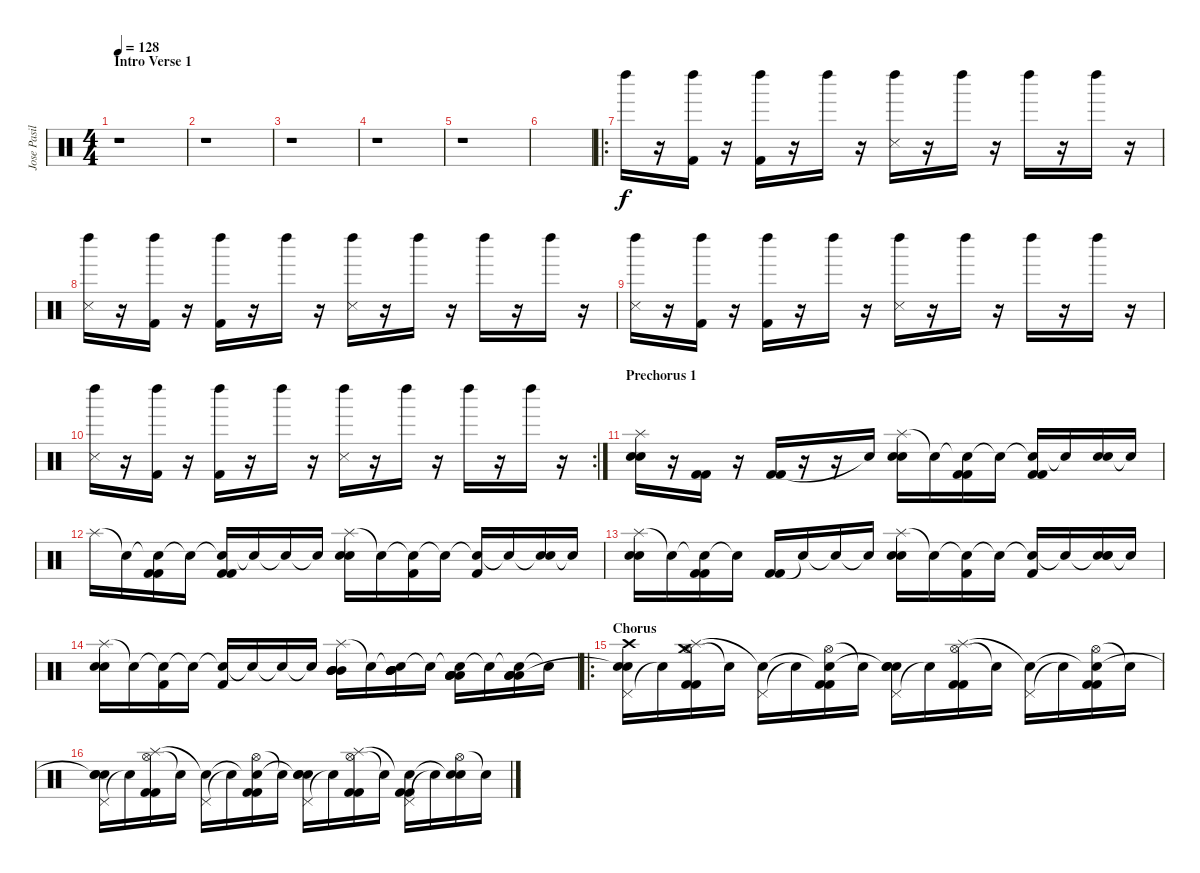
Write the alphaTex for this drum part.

\track ("Jose Pasillas" "Jose Pasil") {instrument percussion}
\staff {score}
\articulation defaults
\ts (4 4)
\section ("" "Intro Verse 1")
\tempo 128
\clef neutral
\ks c
r.1{dy f} |
r.1 |
r.1 |
r.1 |
r.1 |
|
\ro "Left Maraca (hit)".16
r.16 ("Left Maraca (hit)" "Kick (hit) 2").16 r.16 ("Left Maraca (hit)" "Kick (hit) 2").16 r.16 "Left Maraca (hit)".16 r.16 ("Metronome (hit)" "Left Maraca (hit)").16 r.16 "Left Maraca (hit)".16 r.16 "Left Maraca (hit)".16 r.16 "Left Maraca (hit)".16 r.16 |
("Left Maraca (hit)" "Metronome (hit)").16 r.16 ("Left Maraca (hit)" "Kick (hit) 2").16 r.16 ("Left Maraca (hit)" "Kick (hit) 2").16 r.16 "Left Maraca (hit)".16 r.16 ("Metronome (hit)" "Left Maraca (hit)").16 r.16 "Left Maraca (hit)".16 r.16 "Left Maraca (hit)".16 r.16 "Left Maraca (hit)".16 r.16 |
("Left Maraca (hit)" "Metronome (hit)").16 r.16 ("Left Maraca (hit)" "Kick (hit) 2").16 r.16 ("Left Maraca (hit)" "Kick (hit) 2").16 r.16 "Left Maraca (hit)".16 r.16 ("Metronome (hit)" "Left Maraca (hit)").16 r.16 "Left Maraca (hit)".16 r.16 "Left Maraca (hit)".16 r.16 "Left Maraca (hit)".16 r.16 |
\rc 2
("Left Maraca (hit)" "Metronome (hit)").16 r.16 ("Left Maraca (hit)" "Kick (hit) 2").16 r.16 ("Left Maraca (hit)" "Kick (hit) 2").16 r.16 "Left Maraca (hit)".16 r.16 ("Metronome (hit)" "Left Maraca (hit)").16 r.16 "Left Maraca (hit)".16 r.16 "Left Maraca (hit)".16 r.16 "Left Maraca (hit)".16 r.16 |
\section ("" "Prechorus 1")
("Splash (hit)" "Electric Snare (hit)" "Electric Snare (hit)").16 r.16 ("Kick (hit) 2" "Kick (hit) 2").16 r.16 ("Kick (hit) 2" "Kick (hit) 2").16 r.16 r.16 "Snare (hit)"{t}.16 ("Splash (hit)" "Electric Snare (hit)" "Electric Snare (hit)").16 "Snare (hit)"{t}.16 ("Snare (hit)"{t} "Kick (hit) 2" "Kick (hit) 2").16 "Snare (hit)"{t}.16 ("Snare (hit)"{t} "Kick (hit) 2" "Kick (hit) 2").16 "Snare (hit)"{t}.16 ("Electric Snare (hit)" "Electric Snare (hit)").16 "Snare (hit)"{t}.16 |
"Splash (hit)".16 "Snare (hit)"{t}.16 ("Snare (hit)"{t} "Kick (hit) 2" "Kick (hit) 2").16 "Snare (hit)"{t}.16 ("Snare (hit)"{t} "Kick (hit) 2" "Kick (hit) 2").16 "Snare (hit)"{t}.16 "Snare (hit)"{t}.16 "Snare (hit)"{t}.16 ("Splash (hit)" "Electric Snare (hit)" "Electric Snare (hit)").16 "Snare (hit)"{t}.16 ("Snare (hit)"{t} "Kick (hit) 2").16 "Snare (hit)"{t}.16 ("Snare (hit)"{t} "Kick (hit) 2").16 "Snare (hit)"{t}.16 ("Snare (hit)"{t} "Electric Snare (hit)").16 "Snare (hit)"{t}.16 |
("Splash (hit)" "Electric Snare (hit)" "Electric Snare (hit)").16 "Snare (hit)"{t}.16 ("Snare (hit)"{t} "Kick (hit) 2" "Kick (hit) 2").16 "Snare (hit)"{t}.16 ("Kick (hit) 2" "Kick (hit) 2").16 "Snare (hit)"{t}.16 "Snare (hit)"{t}.16 "Snare (hit)"{t}.16 ("Splash (hit)" "Electric Snare (hit)" "Electric Snare (hit)").16 "Snare (hit)"{t}.16 ("Snare (hit)"{t} "Kick (hit) 2").16 "Snare (hit)"{t}.16 ("Snare (hit)"{t} "Kick (hit) 2").16 "Snare (hit)"{t}.16 ("Snare (hit)"{t} "Electric Snare (hit)" "Electric Snare (hit)").16 "Snare (hit)"{t}.16 |
("Splash (hit)" "Electric Snare (hit)" "Electric Snare (hit)").16 "Snare (hit)"{t}.16 ("Snare (hit)"{t} "Kick (hit) 2").16 "Snare (hit)"{t}.16 ("Snare (hit)"{t} "Kick (hit) 2").16 "Snare (hit)"{t}.16 "Snare (hit)"{t}.16 "Snare (hit)"{t}.16 ("Splash (hit)" "Mid Tom (hit)" "Mid Tom (hit)" "Mid Tom (hit)" "Mid Tom (hit)").16 "Snare (hit)"{t}.16 ("Snare (hit)"{t} "Mid Tom (hit)" "Mid Tom (hit)" "Mid Tom (hit)" "Mid Tom (hit)").16 "Snare (hit)"{t}.16 ("Snare (hit)"{t} "Low Tom (hit)" "Low Tom (hit)" "Low Tom (hit)" "Low Tom (hit)").16 "Snare (hit)"{t}.16 ("Snare (hit)"{t} "Low Tom (hit)" "Low Tom (hit)" "Low Tom (hit)" "Low Tom (hit)").16 "Snare (hit)"{t}.16 |
\ro
\section ("" "Chorus")
("Pedal Hi-Hat (hit)" "Snare (hit)"{t} "Electric Snare (hit)" "Crash high (hit)").16 "Snare (hit)"{t}.16 ("Hi-Hat (open)" "Splash (hit)" "Kick (hit) 2" "Kick (hit) 2" "Crash medium (hit)").16 "Snare (hit)"{t}.16 ("Pedal Hi-Hat (hit)" "Snare (hit)"{t}).16 "Snare (hit)"{t}.16 ("Hi-Hat (open)" "Snare (hit)"{t} "Kick (hit) 2" "Kick (hit) 2").16 "Snare (hit)"{t}.16 ("Pedal Hi-Hat (hit)" "Snare (hit)"{t} "Electric Snare (hit)" "Electric Snare (hit)").16 "Snare (hit)"{t}.16 ("Hi-Hat (open)" "Splash (hit)" "Kick (hit) 2" "Kick (hit) 2").16 "Snare (hit)"{t}.16 ("Pedal Hi-Hat (hit)" "Snare (hit)"{t}).16 "Snare (hit)"{t}.16 ("Hi-Hat (open)" "Snare (hit)"{t} "Kick (hit) 2" "Kick (hit) 2").16 "Snare (hit)"{t}.16 |
("Pedal Hi-Hat (hit)" "Snare (hit)"{t} "Electric Snare (hit)" "Electric Snare (hit)").16 "Snare (hit)"{t}.16 ("Hi-Hat (open)" "Splash (hit)" "Kick (hit) 2" "Kick (hit) 2").16 "Snare (hit)"{t}.16 ("Pedal Hi-Hat (hit)" "Snare (hit)"{t}).16 "Snare (hit)"{t}.16 ("Hi-Hat (open)" "Snare (hit)"{t} "Kick (hit) 2" "Kick (hit) 2").16 "Snare (hit)"{t}.16 ("Pedal Hi-Hat (hit)" "Snare (hit)"{t} "Electric Snare (hit)" "Electric Snare (hit)").16 "Snare (hit)"{t}.16 ("Hi-Hat (open)" "Splash (hit)" "Kick (hit) 2" "Kick (hit) 2").16 "Snare (hit)"{t}.16 ("Pedal Hi-Hat (hit)" "Snare (hit)"{t} "Kick (hit) 2" "Kick (hit) 2").16 "Snare (hit)"{t}.16 ("Hi-Hat (open)" "Snare (hit)"{t} "Electric Snare (hit)").16 "Snare (hit)"{t}.16
